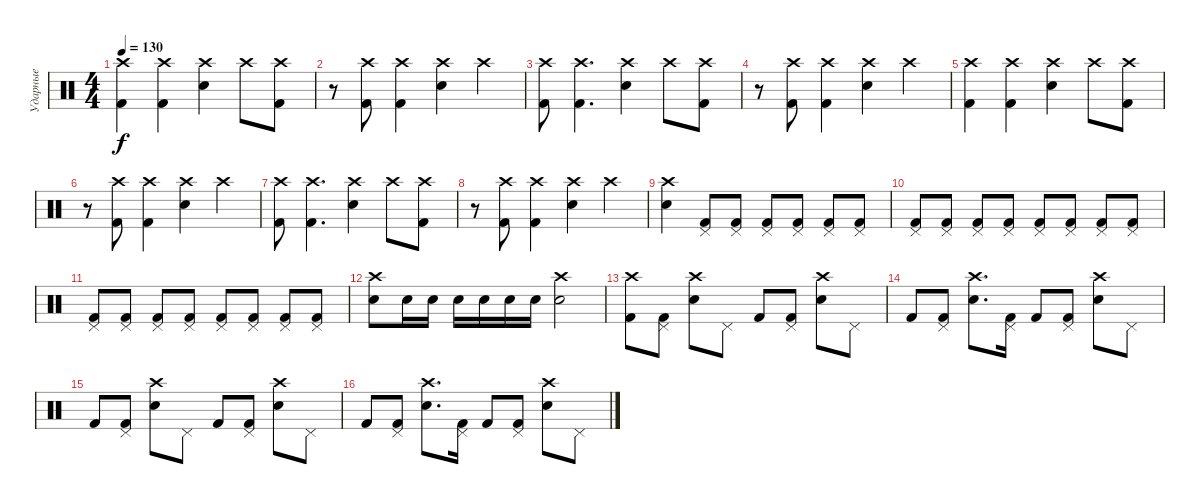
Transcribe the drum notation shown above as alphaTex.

\track ("Ударные" "Ударные") {instrument percussion}
\staff {score}
\articulation defaults
\ts (4 4)
\tempo 130
\clef neutral
\ks c
("Crash high (hit)" "Kick (hit) 2").4{dy f} ("Crash high (hit)" "Kick (hit) 2").4 ("Crash high (hit)" "Snare (hit) 2").4 "Crash high (hit)".8 ("Crash high (hit)" "Kick (hit) 2").8 |
r.8 ("Crash high (hit)" "Kick (hit) 2").8 ("Crash high (hit)" "Kick (hit) 2").4 ("Crash high (hit)" "Snare (hit) 2").4 "Crash high (hit)".4 |
("Crash high (hit)" "Kick (hit) 2").8 ("Crash high (hit)" "Kick (hit) 2").4{d} ("Crash high (hit)" "Snare (hit) 2").4 "Crash high (hit)".8 ("Crash high (hit)" "Kick (hit) 2").8 |
r.8 ("Crash high (hit)" "Kick (hit) 2").8 ("Crash high (hit)" "Kick (hit) 2").4 ("Crash high (hit)" "Snare (hit) 2").4 "Crash high (hit)".4 |
("Crash high (hit)" "Kick (hit) 2").4 ("Crash high (hit)" "Kick (hit) 2").4 ("Crash high (hit)" "Snare (hit) 2").4 "Crash high (hit)".8 ("Crash high (hit)" "Kick (hit) 2").8 |
r.8 ("Crash high (hit)" "Kick (hit) 2").8 ("Crash high (hit)" "Kick (hit) 2").4 ("Crash high (hit)" "Snare (hit) 2").4 "Crash high (hit)".4 |
("Crash high (hit)" "Kick (hit) 2").8 ("Crash high (hit)" "Kick (hit) 2").4{d} ("Crash high (hit)" "Snare (hit) 2").4 "Crash high (hit)".8 ("Crash high (hit)" "Kick (hit) 2").8 |
r.8 ("Crash high (hit)" "Kick (hit) 2").8 ("Crash high (hit)" "Kick (hit) 2").4 ("Crash high (hit)" "Snare (hit) 2").4 "Crash high (hit)".4 |
("Crash high (hit)" "Snare (hit) 2").4 ("Pedal Hi-Hat (hit)" "Kick (hit) 2").8 ("Pedal Hi-Hat (hit)" "Kick (hit) 2").8 ("Pedal Hi-Hat (hit)" "Kick (hit) 2").8 ("Pedal Hi-Hat (hit)" "Kick (hit) 2").8 ("Pedal Hi-Hat (hit)" "Kick (hit) 2").8 ("Pedal Hi-Hat (hit)" "Kick (hit) 2").8 |
("Pedal Hi-Hat (hit)" "Kick (hit) 2").8 ("Pedal Hi-Hat (hit)" "Kick (hit) 2").8 ("Pedal Hi-Hat (hit)" "Kick (hit) 2").8 ("Pedal Hi-Hat (hit)" "Kick (hit) 2").8 ("Pedal Hi-Hat (hit)" "Kick (hit) 2").8 ("Pedal Hi-Hat (hit)" "Kick (hit) 2").8 ("Pedal Hi-Hat (hit)" "Kick (hit) 2").8 ("Pedal Hi-Hat (hit)" "Kick (hit) 2").8 |
("Pedal Hi-Hat (hit)" "Kick (hit) 2").8 ("Pedal Hi-Hat (hit)" "Kick (hit) 2").8 ("Pedal Hi-Hat (hit)" "Kick (hit) 2").8 ("Pedal Hi-Hat (hit)" "Kick (hit) 2").8 ("Pedal Hi-Hat (hit)" "Kick (hit) 2").8 ("Pedal Hi-Hat (hit)" "Kick (hit) 2").8 ("Pedal Hi-Hat (hit)" "Kick (hit) 2").8 ("Pedal Hi-Hat (hit)" "Kick (hit) 2").8 |
("Crash high (hit)" "Snare (hit) 2").8 "Electric Snare (hit)".16 "Electric Snare (hit)".16 "Electric Snare (hit)".16 "Electric Snare (hit)".16 "Electric Snare (hit)".16 "Electric Snare (hit)".16 ("Crash high (hit)" "Snare (hit) 2").2 |
("Crash high (hit)" "Kick (hit) 2").8 ("Pedal Hi-Hat (hit)" "Kick (hit) 2").8 ("Crash high (hit)" "Snare (hit) 2").8 "Pedal Hi-Hat (hit)".8 "Kick (hit) 2".8 ("Pedal Hi-Hat (hit)" "Kick (hit) 2").8 ("Crash high (hit)" "Snare (hit) 2").8 "Pedal Hi-Hat (hit)".8 |
"Kick (hit) 2".8 ("Pedal Hi-Hat (hit)" "Kick (hit) 2").8 ("Crash high (hit)" "Snare (hit) 2").8{d} ("Pedal Hi-Hat (hit)" "Kick (hit) 2").16 "Kick (hit) 2".8 ("Pedal Hi-Hat (hit)" "Kick (hit) 2").8 ("Crash high (hit)" "Snare (hit) 2").8 "Pedal Hi-Hat (hit)".8 |
"Kick (hit) 2".8 ("Pedal Hi-Hat (hit)" "Kick (hit) 2").8 ("Crash high (hit)" "Snare (hit) 2").8 "Pedal Hi-Hat (hit)".8 "Kick (hit) 2".8 ("Pedal Hi-Hat (hit)" "Kick (hit) 2").8 ("Crash high (hit)" "Snare (hit) 2").8 "Pedal Hi-Hat (hit)".8 |
"Kick (hit) 2".8 ("Pedal Hi-Hat (hit)" "Kick (hit) 2").8 ("Crash high (hit)" "Snare (hit) 2").8{d} ("Pedal Hi-Hat (hit)" "Kick (hit) 2").16 "Kick (hit) 2".8 ("Pedal Hi-Hat (hit)" "Kick (hit) 2").8 ("Crash high (hit)" "Snare (hit) 2").8 "Pedal Hi-Hat (hit)".8
